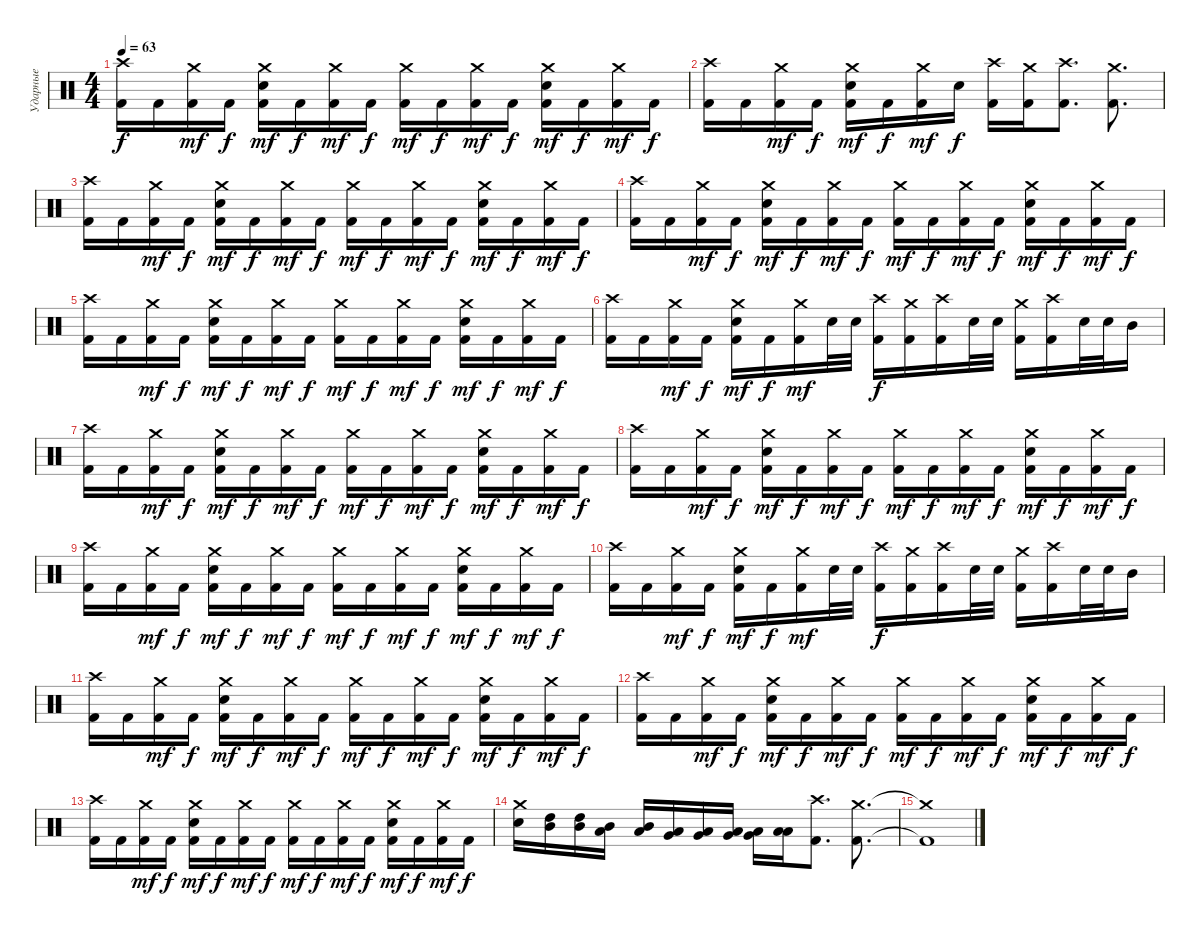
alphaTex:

\track ("Ударные" "Ударные") {instrument percussion}
\staff {score}
\articulation defaults
\ts (4 4)
\tempo 63
\clef neutral
\ks c
("Crash high (hit)" "Kick (hit) 2").16{dy f} "Kick (hit) 2".16 ("Crash medium (hit)" "Kick (hit) 2").16{dy mf} "Kick (hit) 2".16{dy f} ("Crash medium (hit)" "Snare (hit) 2" "Kick (hit) 2").16{dy mf} "Kick (hit) 2".16{dy f} ("Crash medium (hit)" "Kick (hit) 2").16{dy mf} "Kick (hit) 2".16{dy f} ("Crash medium (hit)" "Kick (hit) 2").16{dy mf} "Kick (hit) 2".16{dy f} ("Crash medium (hit)" "Kick (hit) 2").16{dy mf} "Kick (hit) 2".16{dy f} ("Crash medium (hit)" "Snare (hit) 2" "Kick (hit) 2").16{dy mf} "Kick (hit) 2".16{dy f} ("Crash medium (hit)" "Kick (hit) 2").16{dy mf} "Kick (hit) 2".16{dy f} |
("Crash high (hit)" "Kick (hit) 2").16 "Kick (hit) 2".16 ("Crash medium (hit)" "Kick (hit) 2").16{dy mf} "Kick (hit) 2".16{dy f} ("Crash medium (hit)" "Snare (hit) 2" "Kick (hit) 2").16{dy mf} "Kick (hit) 2".16{dy f} ("Crash medium (hit)" "Kick (hit) 2").16{dy mf} "Snare (hit) 2".16{dy f} ("Crash high (hit)" "Kick (hit) 2").16 ("Crash medium (hit)" "Kick (hit) 2").16 ("Crash high (hit)" "Kick (hit) 2").8{d} ("Crash medium (hit)" "Kick (hit) 2").8{d} |
("Crash high (hit)" "Kick (hit) 2").16 "Kick (hit) 2".16 ("Crash medium (hit)" "Kick (hit) 2").16{dy mf} "Kick (hit) 2".16{dy f} ("Crash medium (hit)" "Snare (hit) 2" "Kick (hit) 2").16{dy mf} "Kick (hit) 2".16{dy f} ("Crash medium (hit)" "Kick (hit) 2").16{dy mf} "Kick (hit) 2".16{dy f} ("Crash medium (hit)" "Kick (hit) 2").16{dy mf} "Kick (hit) 2".16{dy f} ("Crash medium (hit)" "Kick (hit) 2").16{dy mf} "Kick (hit) 2".16{dy f} ("Crash medium (hit)" "Snare (hit) 2" "Kick (hit) 2").16{dy mf} "Kick (hit) 2".16{dy f} ("Crash medium (hit)" "Kick (hit) 2").16{dy mf} "Kick (hit) 2".16{dy f} |
("Crash high (hit)" "Kick (hit) 2").16 "Kick (hit) 2".16 ("Crash medium (hit)" "Kick (hit) 2").16{dy mf} "Kick (hit) 2".16{dy f} ("Crash medium (hit)" "Snare (hit) 2" "Kick (hit) 2").16{dy mf} "Kick (hit) 2".16{dy f} ("Crash medium (hit)" "Kick (hit) 2").16{dy mf} "Kick (hit) 2".16{dy f} ("Crash medium (hit)" "Kick (hit) 2").16{dy mf} "Kick (hit) 2".16{dy f} ("Crash medium (hit)" "Kick (hit) 2").16{dy mf} "Kick (hit) 2".16{dy f} ("Crash medium (hit)" "Snare (hit) 2" "Kick (hit) 2").16{dy mf} "Kick (hit) 2".16{dy f} ("Crash medium (hit)" "Kick (hit) 2").16{dy mf} "Kick (hit) 2".16{dy f} |
("Crash high (hit)" "Kick (hit) 2").16 "Kick (hit) 2".16 ("Crash medium (hit)" "Kick (hit) 2").16{dy mf} "Kick (hit) 2".16{dy f} ("Crash medium (hit)" "Snare (hit) 2" "Kick (hit) 2").16{dy mf} "Kick (hit) 2".16{dy f} ("Crash medium (hit)" "Kick (hit) 2").16{dy mf} "Kick (hit) 2".16{dy f} ("Crash medium (hit)" "Kick (hit) 2").16{dy mf} "Kick (hit) 2".16{dy f} ("Crash medium (hit)" "Kick (hit) 2").16{dy mf} "Kick (hit) 2".16{dy f} ("Crash medium (hit)" "Snare (hit) 2" "Kick (hit) 2").16{dy mf} "Kick (hit) 2".16{dy f} ("Crash medium (hit)" "Kick (hit) 2").16{dy mf} "Kick (hit) 2".16{dy f} |
("Crash high (hit)" "Kick (hit) 2").16 "Kick (hit) 2".16 ("Crash medium (hit)" "Kick (hit) 2").16{dy mf} "Kick (hit) 2".16{dy f} ("Crash medium (hit)" "Snare (hit) 2" "Kick (hit) 2").16{dy mf} "Kick (hit) 2".16{dy f} ("Crash medium (hit)" "Kick (hit) 2").16{dy mf} "Snare (hit) 2".32 "Snare (hit) 2".32 ("Crash high (hit)" "Kick (hit) 2").16{dy f} ("Crash medium (hit)" "Kick (hit) 2").16 ("Crash high (hit)" "Kick (hit) 2").16 "Snare (hit) 2".32 "Snare (hit) 2".32 ("Crash medium (hit)" "Kick (hit) 2").16 ("Crash high (hit)" "Kick (hit) 2").16 "Snare (hit) 2".32 "Snare (hit) 2".32 "Mid Tom (hit)".16 |
("Crash high (hit)" "Kick (hit) 2").16 "Kick (hit) 2".16 ("Crash medium (hit)" "Kick (hit) 2").16{dy mf} "Kick (hit) 2".16{dy f} ("Crash medium (hit)" "Snare (hit) 2" "Kick (hit) 2").16{dy mf} "Kick (hit) 2".16{dy f} ("Crash medium (hit)" "Kick (hit) 2").16{dy mf} "Kick (hit) 2".16{dy f} ("Crash medium (hit)" "Kick (hit) 2").16{dy mf} "Kick (hit) 2".16{dy f} ("Crash medium (hit)" "Kick (hit) 2").16{dy mf} "Kick (hit) 2".16{dy f} ("Crash medium (hit)" "Snare (hit) 2" "Kick (hit) 2").16{dy mf} "Kick (hit) 2".16{dy f} ("Crash medium (hit)" "Kick (hit) 2").16{dy mf} "Kick (hit) 2".16{dy f} |
("Crash high (hit)" "Kick (hit) 2").16 "Kick (hit) 2".16 ("Crash medium (hit)" "Kick (hit) 2").16{dy mf} "Kick (hit) 2".16{dy f} ("Crash medium (hit)" "Snare (hit) 2" "Kick (hit) 2").16{dy mf} "Kick (hit) 2".16{dy f} ("Crash medium (hit)" "Kick (hit) 2").16{dy mf} "Kick (hit) 2".16{dy f} ("Crash medium (hit)" "Kick (hit) 2").16{dy mf} "Kick (hit) 2".16{dy f} ("Crash medium (hit)" "Kick (hit) 2").16{dy mf} "Kick (hit) 2".16{dy f} ("Crash medium (hit)" "Snare (hit) 2" "Kick (hit) 2").16{dy mf} "Kick (hit) 2".16{dy f} ("Crash medium (hit)" "Kick (hit) 2").16{dy mf} "Kick (hit) 2".16{dy f} |
("Crash high (hit)" "Kick (hit) 2").16 "Kick (hit) 2".16 ("Crash medium (hit)" "Kick (hit) 2").16{dy mf} "Kick (hit) 2".16{dy f} ("Crash medium (hit)" "Snare (hit) 2" "Kick (hit) 2").16{dy mf} "Kick (hit) 2".16{dy f} ("Crash medium (hit)" "Kick (hit) 2").16{dy mf} "Kick (hit) 2".16{dy f} ("Crash medium (hit)" "Kick (hit) 2").16{dy mf} "Kick (hit) 2".16{dy f} ("Crash medium (hit)" "Kick (hit) 2").16{dy mf} "Kick (hit) 2".16{dy f} ("Crash medium (hit)" "Snare (hit) 2" "Kick (hit) 2").16{dy mf} "Kick (hit) 2".16{dy f} ("Crash medium (hit)" "Kick (hit) 2").16{dy mf} "Kick (hit) 2".16{dy f} |
("Crash high (hit)" "Kick (hit) 2").16 "Kick (hit) 2".16 ("Crash medium (hit)" "Kick (hit) 2").16{dy mf} "Kick (hit) 2".16{dy f} ("Crash medium (hit)" "Snare (hit) 2" "Kick (hit) 2").16{dy mf} "Kick (hit) 2".16{dy f} ("Crash medium (hit)" "Kick (hit) 2").16{dy mf} "Snare (hit) 2".32 "Snare (hit) 2".32 ("Crash high (hit)" "Kick (hit) 2").16{dy f} ("Crash medium (hit)" "Kick (hit) 2").16 ("Crash high (hit)" "Kick (hit) 2").16 "Snare (hit) 2".32 "Snare (hit) 2".32 ("Crash medium (hit)" "Kick (hit) 2").16 ("Crash high (hit)" "Kick (hit) 2").16 "Snare (hit) 2".32 "Snare (hit) 2".32 "Mid Tom (hit)".16 |
("Crash high (hit)" "Kick (hit) 2").16 "Kick (hit) 2".16 ("Crash medium (hit)" "Kick (hit) 2").16{dy mf} "Kick (hit) 2".16{dy f} ("Crash medium (hit)" "Snare (hit) 2" "Kick (hit) 2").16{dy mf} "Kick (hit) 2".16{dy f} ("Crash medium (hit)" "Kick (hit) 2").16{dy mf} "Kick (hit) 2".16{dy f} ("Crash medium (hit)" "Kick (hit) 2").16{dy mf} "Kick (hit) 2".16{dy f} ("Crash medium (hit)" "Kick (hit) 2").16{dy mf} "Kick (hit) 2".16{dy f} ("Crash medium (hit)" "Snare (hit) 2" "Kick (hit) 2").16{dy mf} "Kick (hit) 2".16{dy f} ("Crash medium (hit)" "Kick (hit) 2").16{dy mf} "Kick (hit) 2".16{dy f} |
("Crash high (hit)" "Kick (hit) 2").16 "Kick (hit) 2".16 ("Crash medium (hit)" "Kick (hit) 2").16{dy mf} "Kick (hit) 2".16{dy f} ("Crash medium (hit)" "Snare (hit) 2" "Kick (hit) 2").16{dy mf} "Kick (hit) 2".16{dy f} ("Crash medium (hit)" "Kick (hit) 2").16{dy mf} "Kick (hit) 2".16{dy f} ("Crash medium (hit)" "Kick (hit) 2").16{dy mf} "Kick (hit) 2".16{dy f} ("Crash medium (hit)" "Kick (hit) 2").16{dy mf} "Kick (hit) 2".16{dy f} ("Crash medium (hit)" "Snare (hit) 2" "Kick (hit) 2").16{dy mf} "Kick (hit) 2".16{dy f} ("Crash medium (hit)" "Kick (hit) 2").16{dy mf} "Kick (hit) 2".16{dy f} |
("Crash high (hit)" "Kick (hit) 2").16 "Kick (hit) 2".16 ("Crash medium (hit)" "Kick (hit) 2").16{dy mf} "Kick (hit) 2".16{dy f} ("Crash medium (hit)" "Snare (hit) 2" "Kick (hit) 2").16{dy mf} "Kick (hit) 2".16{dy f} ("Crash medium (hit)" "Kick (hit) 2").16{dy mf} "Kick (hit) 2".16{dy f} ("Crash medium (hit)" "Kick (hit) 2").16{dy mf} "Kick (hit) 2".16{dy f} ("Crash medium (hit)" "Kick (hit) 2").16{dy mf} "Kick (hit) 2".16{dy f} ("Crash medium (hit)" "Snare (hit) 2" "Kick (hit) 2").16{dy mf} "Kick (hit) 2".16{dy f} ("Crash medium (hit)" "Kick (hit) 2").16{dy mf} "Kick (hit) 2".16{dy f} |
("Crash medium (hit)" "Snare (hit) 2").16 ("High Tom (hit)" "Mid Tom (hit)").16 ("High Tom (hit)" "Mid Tom (hit)").16 ("Mid Tom (hit)" "Low Tom (hit)").16 ("Mid Tom (hit)" "Low Tom (hit)").16 ("Low Tom (hit)" "Very Low Tom (hit)").16 ("Low Tom (hit)" "Very Low Tom (hit)").16 ("Very Low Tom (hit)" "Low Floor Tom (hit)").16 ("Very Low Tom (hit)" "Low Floor Tom (hit)").16 ("Low Floor Tom (hit)" "Low Floor Tom (hit)").16 ("Crash high (hit)" "Kick (hit) 2").8{d} ("Crash medium (hit)" "Kick (hit) 2").8{d} |
("Crash medium (hit)"{t} "Kick (hit) 2"{t}).1
